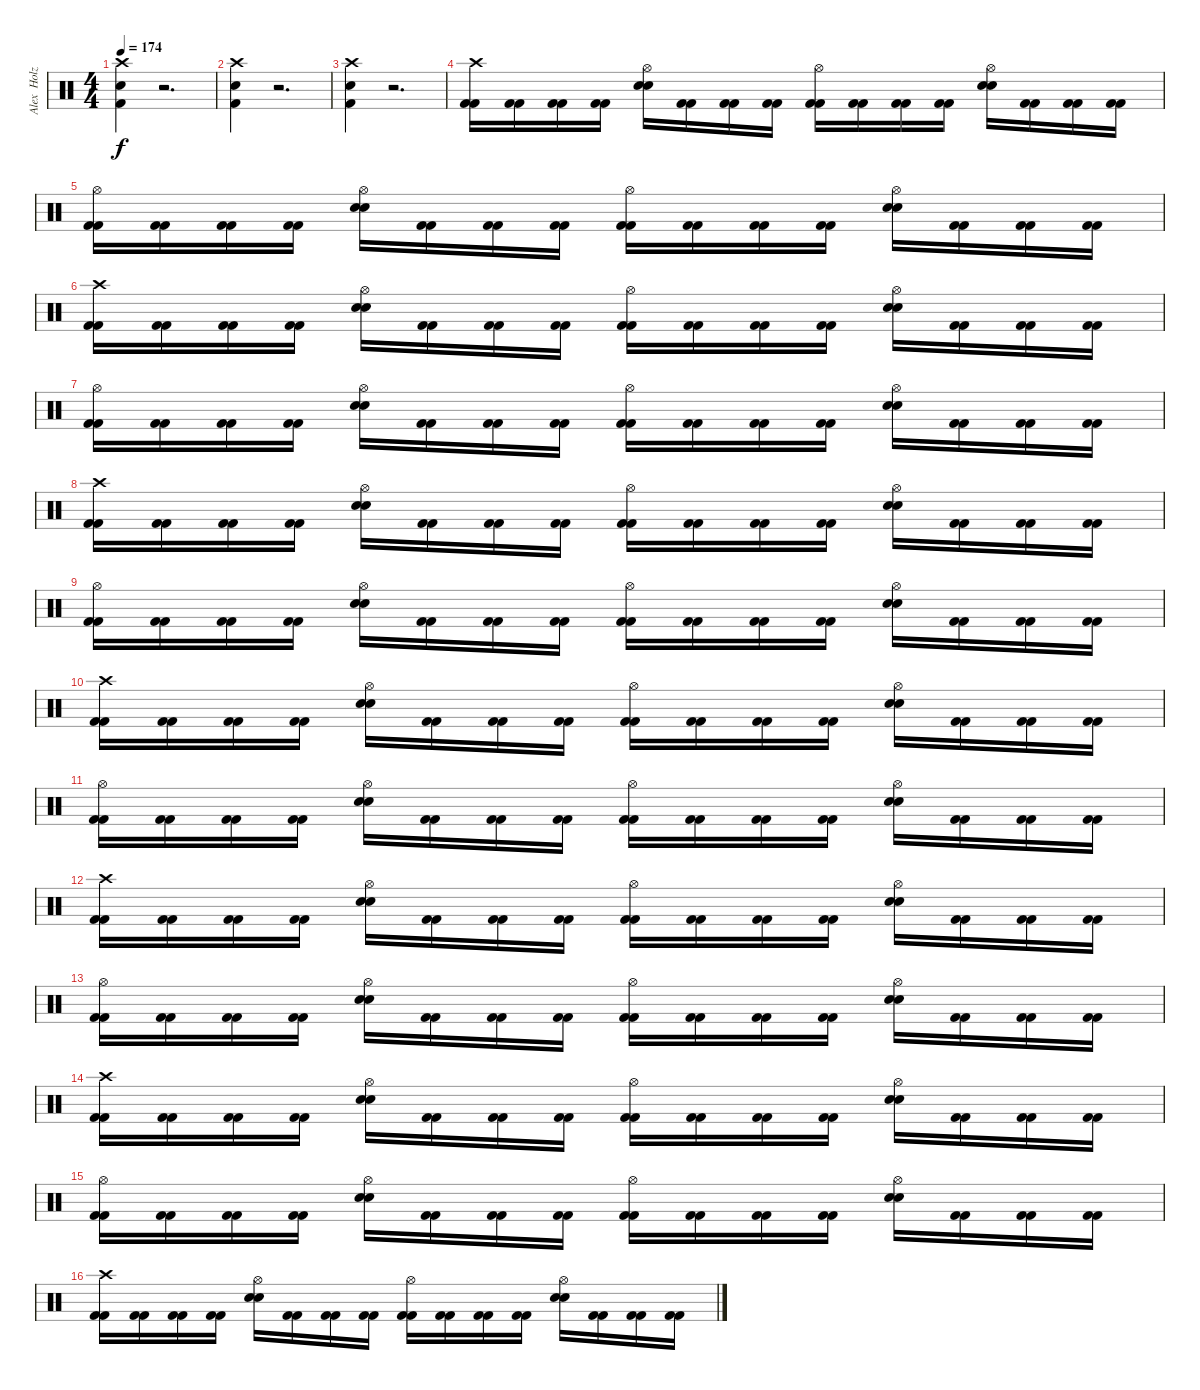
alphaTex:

\track ("Alex  Holzwarth (Drums)" "Alex  Holz") {instrument percussion}
\staff {score}
\articulation defaults
\ts (4 4)
\tempo 174
\clef neutral
\ks c
("Crash high (hit)" "Snare (hit) 2" "Kick (hit) 2").4{dy f} r.2{d} |
("Crash high (hit)" "Snare (hit) 2" "Kick (hit) 2").4 r.2{d} |
("Crash high (hit)" "Snare (hit) 2" "Kick (hit) 2").4 r.2{d} |
("Crash high (hit)" "Kick (hit) 2" "Kick (hit) 2").16 ("Kick (hit) 2" "Kick (hit) 2").16 ("Kick (hit) 2" "Kick (hit) 2").16 ("Kick (hit) 2" "Kick (hit) 2").16 ("Hi-Hat (open)" "Snare (hit) 2" "Snare (hit) 2").16 ("Kick (hit) 2" "Kick (hit) 2").16 ("Kick (hit) 2" "Kick (hit) 2").16 ("Kick (hit) 2" "Kick (hit) 2").16 ("Hi-Hat (open)" "Kick (hit) 2" "Kick (hit) 2").16 ("Kick (hit) 2" "Kick (hit) 2").16 ("Kick (hit) 2" "Kick (hit) 2").16 ("Kick (hit) 2" "Kick (hit) 2").16 ("Hi-Hat (open)" "Snare (hit) 2" "Snare (hit) 2").16 ("Kick (hit) 2" "Kick (hit) 2").16 ("Kick (hit) 2" "Kick (hit) 2").16 ("Kick (hit) 2" "Kick (hit) 2").16 |
("Hi-Hat (open)" "Kick (hit) 2" "Kick (hit) 2").16 ("Kick (hit) 2" "Kick (hit) 2").16 ("Kick (hit) 2" "Kick (hit) 2").16 ("Kick (hit) 2" "Kick (hit) 2").16 ("Hi-Hat (open)" "Snare (hit) 2" "Snare (hit) 2").16 ("Kick (hit) 2" "Kick (hit) 2").16 ("Kick (hit) 2" "Kick (hit) 2").16 ("Kick (hit) 2" "Kick (hit) 2").16 ("Hi-Hat (open)" "Kick (hit) 2" "Kick (hit) 2").16 ("Kick (hit) 2" "Kick (hit) 2").16 ("Kick (hit) 2" "Kick (hit) 2").16 ("Kick (hit) 2" "Kick (hit) 2").16 ("Hi-Hat (open)" "Snare (hit) 2" "Snare (hit) 2").16 ("Kick (hit) 2" "Kick (hit) 2").16 ("Kick (hit) 2" "Kick (hit) 2").16 ("Kick (hit) 2" "Kick (hit) 2").16 |
("Crash high (hit)" "Kick (hit) 2" "Kick (hit) 2").16 ("Kick (hit) 2" "Kick (hit) 2").16 ("Kick (hit) 2" "Kick (hit) 2").16 ("Kick (hit) 2" "Kick (hit) 2").16 ("Hi-Hat (open)" "Snare (hit) 2" "Snare (hit) 2").16 ("Kick (hit) 2" "Kick (hit) 2").16 ("Kick (hit) 2" "Kick (hit) 2").16 ("Kick (hit) 2" "Kick (hit) 2").16 ("Hi-Hat (open)" "Kick (hit) 2" "Kick (hit) 2").16 ("Kick (hit) 2" "Kick (hit) 2").16 ("Kick (hit) 2" "Kick (hit) 2").16 ("Kick (hit) 2" "Kick (hit) 2").16 ("Hi-Hat (open)" "Snare (hit) 2" "Snare (hit) 2").16 ("Kick (hit) 2" "Kick (hit) 2").16 ("Kick (hit) 2" "Kick (hit) 2").16 ("Kick (hit) 2" "Kick (hit) 2").16 |
("Hi-Hat (open)" "Kick (hit) 2" "Kick (hit) 2").16 ("Kick (hit) 2" "Kick (hit) 2").16 ("Kick (hit) 2" "Kick (hit) 2").16 ("Kick (hit) 2" "Kick (hit) 2").16 ("Hi-Hat (open)" "Snare (hit) 2" "Snare (hit) 2").16 ("Kick (hit) 2" "Kick (hit) 2").16 ("Kick (hit) 2" "Kick (hit) 2").16 ("Kick (hit) 2" "Kick (hit) 2").16 ("Hi-Hat (open)" "Kick (hit) 2" "Kick (hit) 2").16 ("Kick (hit) 2" "Kick (hit) 2").16 ("Kick (hit) 2" "Kick (hit) 2").16 ("Kick (hit) 2" "Kick (hit) 2").16 ("Hi-Hat (open)" "Snare (hit) 2" "Snare (hit) 2").16 ("Kick (hit) 2" "Kick (hit) 2").16 ("Kick (hit) 2" "Kick (hit) 2").16 ("Kick (hit) 2" "Kick (hit) 2").16 |
("Crash high (hit)" "Kick (hit) 2" "Kick (hit) 2").16 ("Kick (hit) 2" "Kick (hit) 2").16 ("Kick (hit) 2" "Kick (hit) 2").16 ("Kick (hit) 2" "Kick (hit) 2").16 ("Hi-Hat (open)" "Snare (hit) 2" "Snare (hit) 2").16 ("Kick (hit) 2" "Kick (hit) 2").16 ("Kick (hit) 2" "Kick (hit) 2").16 ("Kick (hit) 2" "Kick (hit) 2").16 ("Hi-Hat (open)" "Kick (hit) 2" "Kick (hit) 2").16 ("Kick (hit) 2" "Kick (hit) 2").16 ("Kick (hit) 2" "Kick (hit) 2").16 ("Kick (hit) 2" "Kick (hit) 2").16 ("Hi-Hat (open)" "Snare (hit) 2" "Snare (hit) 2").16 ("Kick (hit) 2" "Kick (hit) 2").16 ("Kick (hit) 2" "Kick (hit) 2").16 ("Kick (hit) 2" "Kick (hit) 2").16 |
("Hi-Hat (open)" "Kick (hit) 2" "Kick (hit) 2").16 ("Kick (hit) 2" "Kick (hit) 2").16 ("Kick (hit) 2" "Kick (hit) 2").16 ("Kick (hit) 2" "Kick (hit) 2").16 ("Hi-Hat (open)" "Snare (hit) 2" "Snare (hit) 2").16 ("Kick (hit) 2" "Kick (hit) 2").16 ("Kick (hit) 2" "Kick (hit) 2").16 ("Kick (hit) 2" "Kick (hit) 2").16 ("Hi-Hat (open)" "Kick (hit) 2" "Kick (hit) 2").16 ("Kick (hit) 2" "Kick (hit) 2").16 ("Kick (hit) 2" "Kick (hit) 2").16 ("Kick (hit) 2" "Kick (hit) 2").16 ("Hi-Hat (open)" "Snare (hit) 2" "Snare (hit) 2").16 ("Kick (hit) 2" "Kick (hit) 2").16 ("Kick (hit) 2" "Kick (hit) 2").16 ("Kick (hit) 2" "Kick (hit) 2").16 |
("Crash high (hit)" "Kick (hit) 2" "Kick (hit) 2").16 ("Kick (hit) 2" "Kick (hit) 2").16 ("Kick (hit) 2" "Kick (hit) 2").16 ("Kick (hit) 2" "Kick (hit) 2").16 ("Hi-Hat (open)" "Snare (hit) 2" "Snare (hit) 2").16 ("Kick (hit) 2" "Kick (hit) 2").16 ("Kick (hit) 2" "Kick (hit) 2").16 ("Kick (hit) 2" "Kick (hit) 2").16 ("Hi-Hat (open)" "Kick (hit) 2" "Kick (hit) 2").16 ("Kick (hit) 2" "Kick (hit) 2").16 ("Kick (hit) 2" "Kick (hit) 2").16 ("Kick (hit) 2" "Kick (hit) 2").16 ("Hi-Hat (open)" "Snare (hit) 2" "Snare (hit) 2").16 ("Kick (hit) 2" "Kick (hit) 2").16 ("Kick (hit) 2" "Kick (hit) 2").16 ("Kick (hit) 2" "Kick (hit) 2").16 |
("Hi-Hat (open)" "Kick (hit) 2" "Kick (hit) 2").16 ("Kick (hit) 2" "Kick (hit) 2").16 ("Kick (hit) 2" "Kick (hit) 2").16 ("Kick (hit) 2" "Kick (hit) 2").16 ("Hi-Hat (open)" "Snare (hit) 2" "Snare (hit) 2").16 ("Kick (hit) 2" "Kick (hit) 2").16 ("Kick (hit) 2" "Kick (hit) 2").16 ("Kick (hit) 2" "Kick (hit) 2").16 ("Hi-Hat (open)" "Kick (hit) 2" "Kick (hit) 2").16 ("Kick (hit) 2" "Kick (hit) 2").16 ("Kick (hit) 2" "Kick (hit) 2").16 ("Kick (hit) 2" "Kick (hit) 2").16 ("Hi-Hat (open)" "Snare (hit) 2" "Snare (hit) 2").16 ("Kick (hit) 2" "Kick (hit) 2").16 ("Kick (hit) 2" "Kick (hit) 2").16 ("Kick (hit) 2" "Kick (hit) 2").16 |
("Crash high (hit)" "Kick (hit) 2" "Kick (hit) 2").16 ("Kick (hit) 2" "Kick (hit) 2").16 ("Kick (hit) 2" "Kick (hit) 2").16 ("Kick (hit) 2" "Kick (hit) 2").16 ("Hi-Hat (open)" "Snare (hit) 2" "Snare (hit) 2").16 ("Kick (hit) 2" "Kick (hit) 2").16 ("Kick (hit) 2" "Kick (hit) 2").16 ("Kick (hit) 2" "Kick (hit) 2").16 ("Hi-Hat (open)" "Kick (hit) 2" "Kick (hit) 2").16 ("Kick (hit) 2" "Kick (hit) 2").16 ("Kick (hit) 2" "Kick (hit) 2").16 ("Kick (hit) 2" "Kick (hit) 2").16 ("Hi-Hat (open)" "Snare (hit) 2" "Snare (hit) 2").16 ("Kick (hit) 2" "Kick (hit) 2").16 ("Kick (hit) 2" "Kick (hit) 2").16 ("Kick (hit) 2" "Kick (hit) 2").16 |
("Hi-Hat (open)" "Kick (hit) 2" "Kick (hit) 2").16 ("Kick (hit) 2" "Kick (hit) 2").16 ("Kick (hit) 2" "Kick (hit) 2").16 ("Kick (hit) 2" "Kick (hit) 2").16 ("Hi-Hat (open)" "Snare (hit) 2" "Snare (hit) 2").16 ("Kick (hit) 2" "Kick (hit) 2").16 ("Kick (hit) 2" "Kick (hit) 2").16 ("Kick (hit) 2" "Kick (hit) 2").16 ("Hi-Hat (open)" "Kick (hit) 2" "Kick (hit) 2").16 ("Kick (hit) 2" "Kick (hit) 2").16 ("Kick (hit) 2" "Kick (hit) 2").16 ("Kick (hit) 2" "Kick (hit) 2").16 ("Hi-Hat (open)" "Snare (hit) 2" "Snare (hit) 2").16 ("Kick (hit) 2" "Kick (hit) 2").16 ("Kick (hit) 2" "Kick (hit) 2").16 ("Kick (hit) 2" "Kick (hit) 2").16 |
("Crash high (hit)" "Kick (hit) 2" "Kick (hit) 2").16 ("Kick (hit) 2" "Kick (hit) 2").16 ("Kick (hit) 2" "Kick (hit) 2").16 ("Kick (hit) 2" "Kick (hit) 2").16 ("Hi-Hat (open)" "Snare (hit) 2" "Snare (hit) 2").16 ("Kick (hit) 2" "Kick (hit) 2").16 ("Kick (hit) 2" "Kick (hit) 2").16 ("Kick (hit) 2" "Kick (hit) 2").16 ("Hi-Hat (open)" "Kick (hit) 2" "Kick (hit) 2").16 ("Kick (hit) 2" "Kick (hit) 2").16 ("Kick (hit) 2" "Kick (hit) 2").16 ("Kick (hit) 2" "Kick (hit) 2").16 ("Hi-Hat (open)" "Snare (hit) 2" "Snare (hit) 2").16 ("Kick (hit) 2" "Kick (hit) 2").16 ("Kick (hit) 2" "Kick (hit) 2").16 ("Kick (hit) 2" "Kick (hit) 2").16 |
("Hi-Hat (open)" "Kick (hit) 2" "Kick (hit) 2").16 ("Kick (hit) 2" "Kick (hit) 2").16 ("Kick (hit) 2" "Kick (hit) 2").16 ("Kick (hit) 2" "Kick (hit) 2").16 ("Hi-Hat (open)" "Snare (hit) 2" "Snare (hit) 2").16 ("Kick (hit) 2" "Kick (hit) 2").16 ("Kick (hit) 2" "Kick (hit) 2").16 ("Kick (hit) 2" "Kick (hit) 2").16 ("Hi-Hat (open)" "Kick (hit) 2" "Kick (hit) 2").16 ("Kick (hit) 2" "Kick (hit) 2").16 ("Kick (hit) 2" "Kick (hit) 2").16 ("Kick (hit) 2" "Kick (hit) 2").16 ("Hi-Hat (open)" "Snare (hit) 2" "Snare (hit) 2").16 ("Kick (hit) 2" "Kick (hit) 2").16 ("Kick (hit) 2" "Kick (hit) 2").16 ("Kick (hit) 2" "Kick (hit) 2").16 |
("Crash high (hit)" "Kick (hit) 2" "Kick (hit) 2").16 ("Kick (hit) 2" "Kick (hit) 2").16 ("Kick (hit) 2" "Kick (hit) 2").16 ("Kick (hit) 2" "Kick (hit) 2").16 ("Hi-Hat (open)" "Snare (hit) 2" "Snare (hit) 2").16 ("Kick (hit) 2" "Kick (hit) 2").16 ("Kick (hit) 2" "Kick (hit) 2").16 ("Kick (hit) 2" "Kick (hit) 2").16 ("Hi-Hat (open)" "Kick (hit) 2" "Kick (hit) 2").16 ("Kick (hit) 2" "Kick (hit) 2").16 ("Kick (hit) 2" "Kick (hit) 2").16 ("Kick (hit) 2" "Kick (hit) 2").16 ("Hi-Hat (open)" "Snare (hit) 2" "Snare (hit) 2").16 ("Kick (hit) 2" "Kick (hit) 2").16 ("Kick (hit) 2" "Kick (hit) 2").16 ("Kick (hit) 2" "Kick (hit) 2").16
